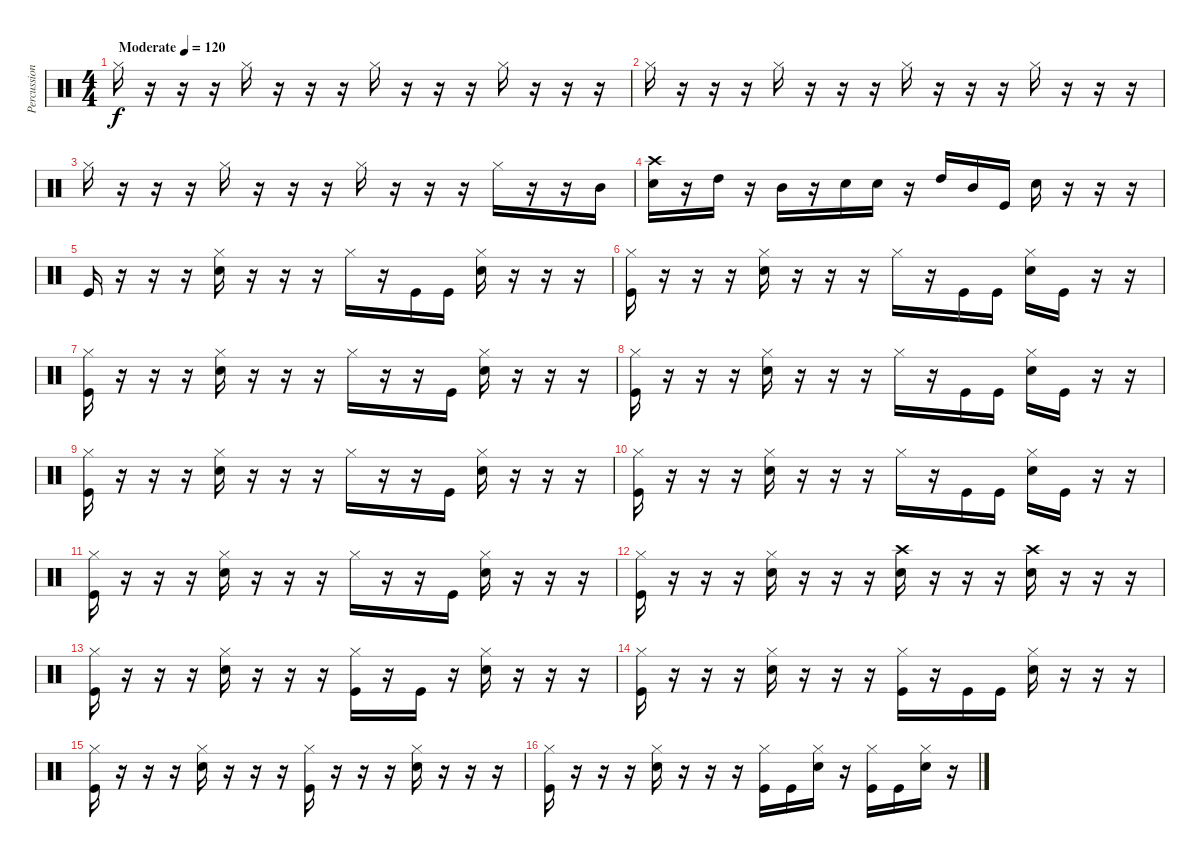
\track ("Percussion" "Percussion") {instrument percussion}
\staff {score}
\articulation defaults
\ts (4 4)
\tempo (120 "Moderate")
\clef neutral
\ks c "Hi-Hat (closed)".16{dy f}
r.16 r.16 r.16 "Hi-Hat (closed)".16 r.16 r.16 r.16 "Hi-Hat (closed)".16 r.16 r.16 r.16 "Hi-Hat (closed)".16 r.16 r.16 r.16 |
"Hi-Hat (closed)".16 r.16 r.16 r.16 "Hi-Hat (closed)".16 r.16 r.16 r.16 "Hi-Hat (closed)".16 r.16 r.16 r.16 "Hi-Hat (closed)".16 r.16 r.16 r.16 |
"Hi-Hat (closed)".16 r.16 r.16 r.16 "Hi-Hat (closed)".16 r.16 r.16 r.16 "Hi-Hat (closed)".16 r.16 r.16 r.16 "Hi-Hat (closed)".16 r.16 r.16 "Mid Tom (hit)".16 |
("Crash high (hit)" "Snare (hit) 2").16 r.16 "High Tom (hit)".16 r.16 "Mid Tom (hit)".16 r.16 "Snare (hit) 2".16 "Snare (hit) 2".16 r.16 "High Tom (hit)".16 "Mid Tom (hit)".16 "Kick (hit)".16 "Snare (hit) 2".16 r.16 r.16 r.16 |
"Kick (hit)".16 r.16 r.16 r.16 ("Hi-Hat (closed)" "Snare (hit) 2").16 r.16 r.16 r.16 "Hi-Hat (closed)".16 r.16 "Kick (hit)".16 "Kick (hit)".16 ("Hi-Hat (closed)" "Snare (hit) 2").16 r.16 r.16 r.16 |
("Hi-Hat (closed)" "Kick (hit)").16 r.16 r.16 r.16 ("Hi-Hat (closed)" "Snare (hit) 2").16 r.16 r.16 r.16 "Hi-Hat (closed)".16 r.16 "Kick (hit)".16 "Kick (hit)".16 ("Hi-Hat (closed)" "Snare (hit) 2").16 "Kick (hit)".16 r.16 r.16 |
("Hi-Hat (closed)" "Kick (hit)").16 r.16 r.16 r.16 ("Hi-Hat (closed)" "Snare (hit) 2").16 r.16 r.16 r.16 "Hi-Hat (closed)".16 r.16 r.16 "Kick (hit)".16 ("Hi-Hat (closed)" "Snare (hit) 2").16 r.16 r.16 r.16 |
("Hi-Hat (closed)" "Kick (hit)").16 r.16 r.16 r.16 ("Hi-Hat (closed)" "Snare (hit) 2").16 r.16 r.16 r.16 "Hi-Hat (closed)".16 r.16 "Kick (hit)".16 "Kick (hit)".16 ("Hi-Hat (closed)" "Snare (hit) 2").16 "Kick (hit)".16 r.16 r.16 |
("Hi-Hat (closed)" "Kick (hit)").16 r.16 r.16 r.16 ("Hi-Hat (closed)" "Snare (hit) 2").16 r.16 r.16 r.16 "Hi-Hat (closed)".16 r.16 r.16 "Kick (hit)".16 ("Hi-Hat (closed)" "Snare (hit) 2").16 r.16 r.16 r.16 |
("Hi-Hat (closed)" "Kick (hit)").16 r.16 r.16 r.16 ("Hi-Hat (closed)" "Snare (hit) 2").16 r.16 r.16 r.16 "Hi-Hat (closed)".16 r.16 "Kick (hit)".16 "Kick (hit)".16 ("Hi-Hat (closed)" "Snare (hit) 2").16 "Kick (hit)".16 r.16 r.16 |
("Hi-Hat (closed)" "Kick (hit)").16 r.16 r.16 r.16 ("Hi-Hat (closed)" "Snare (hit) 2").16 r.16 r.16 r.16 "Hi-Hat (closed)".16 r.16 r.16 "Kick (hit)".16 ("Hi-Hat (closed)" "Snare (hit) 2").16 r.16 r.16 r.16 |
("Hi-Hat (closed)" "Kick (hit)").16 r.16 r.16 r.16 ("Hi-Hat (closed)" "Snare (hit) 2").16 r.16 r.16 r.16 ("Crash high (hit)" "Snare (hit) 2").16 r.16 r.16 r.16 ("Crash high (hit)" "Snare (hit) 2").16 r.16 r.16 r.16 |
("Hi-Hat (closed)" "Kick (hit)").16 r.16 r.16 r.16 ("Hi-Hat (closed)" "Snare (hit) 2").16 r.16 r.16 r.16 ("Hi-Hat (closed)" "Kick (hit)").16 r.16 "Kick (hit)".16 r.16 ("Hi-Hat (closed)" "Snare (hit) 2").16 r.16 r.16 r.16 |
("Hi-Hat (closed)" "Kick (hit)").16 r.16 r.16 r.16 ("Hi-Hat (closed)" "Snare (hit) 2").16 r.16 r.16 r.16 ("Hi-Hat (closed)" "Kick (hit)").16 r.16 "Kick (hit)".16 "Kick (hit)".16 ("Hi-Hat (closed)" "Snare (hit) 2").16 r.16 r.16 r.16 |
("Hi-Hat (closed)" "Kick (hit)").16 r.16 r.16 r.16 ("Hi-Hat (closed)" "Snare (hit) 2").16 r.16 r.16 r.16 ("Hi-Hat (closed)" "Kick (hit)").16 r.16 r.16 r.16 ("Hi-Hat (closed)" "Snare (hit) 2").16 r.16 r.16 r.16 |
("Hi-Hat (closed)" "Kick (hit)").16 r.16 r.16 r.16 ("Hi-Hat (closed)" "Snare (hit) 2").16 r.16 r.16 r.16 ("Hi-Hat (closed)" "Kick (hit)").16 "Kick (hit)".16 ("Hi-Hat (closed)" "Snare (hit) 2").16 r.16 ("Hi-Hat (closed)" "Kick (hit)").16 "Kick (hit)".16 ("Hi-Hat (closed)" "Snare (hit) 2").16 r.16
